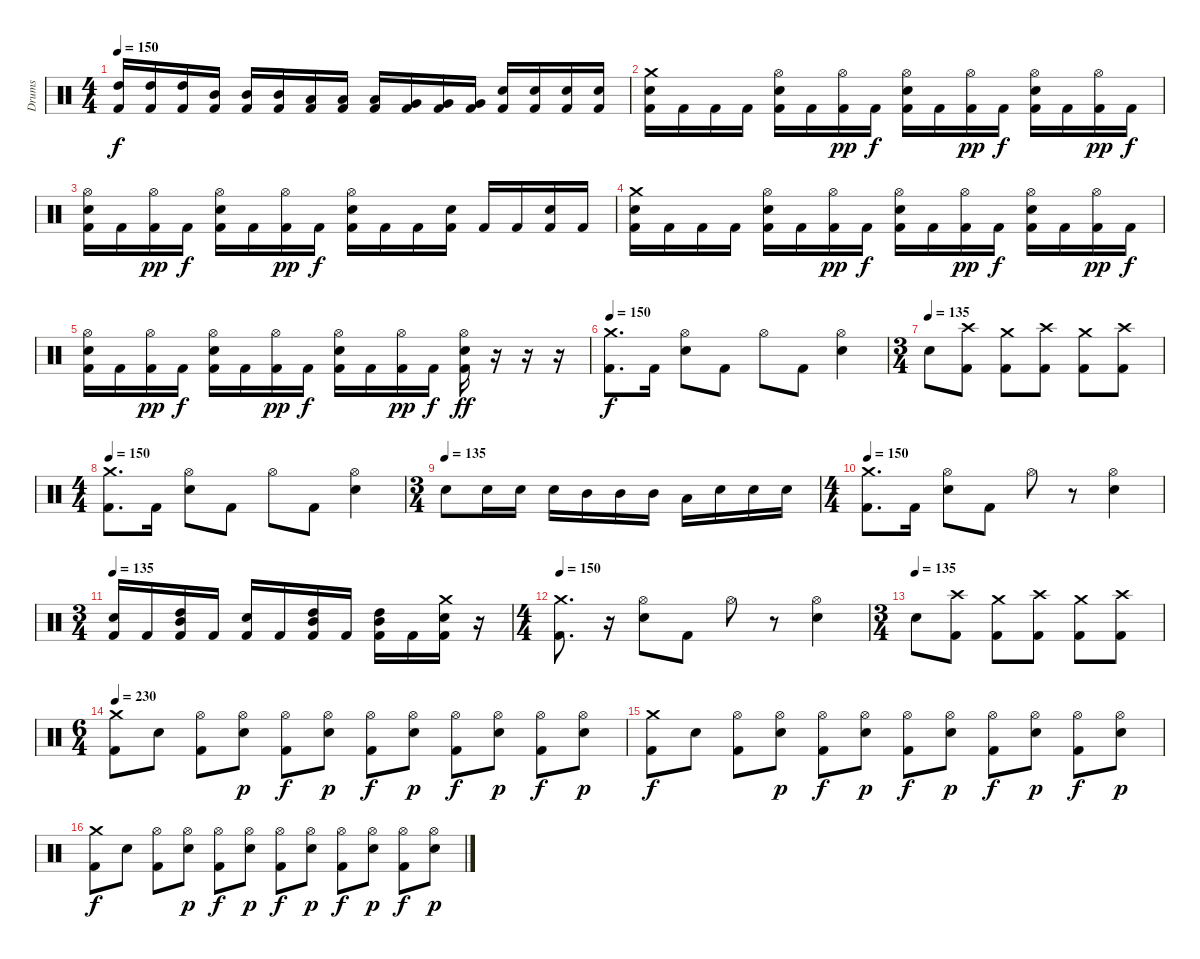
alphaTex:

\track ("Drums" "Drums") {instrument percussion}
\staff {score}
\articulation defaults
\ts (4 4)
\tempo 150
\clef neutral
\ks c
("High Tom (hit)" "Kick (hit) 2").16{dy f} ("High Tom (hit)" "Kick (hit) 2").16 ("High Tom (hit)" "Kick (hit) 2").16 ("Mid Tom (hit)" "Kick (hit) 2").16 ("Mid Tom (hit)" "Kick (hit) 2").16 ("Mid Tom (hit)" "Kick (hit) 2").16 ("Low Tom (hit)" "Kick (hit) 2").16 ("Low Tom (hit)" "Kick (hit) 2").16 ("Low Tom (hit)" "Kick (hit) 2").16 ("Very Low Tom (hit)" "Kick (hit) 2").16 ("Very Low Tom (hit)" "Kick (hit) 2").16 ("Very Low Tom (hit)" "Kick (hit) 2").16 ("Snare (hit) 2" "Kick (hit) 2").16 ("Snare (hit) 2" "Kick (hit) 2").16 ("Snare (hit) 2" "Kick (hit) 2").16 ("Snare (hit) 2" "Kick (hit) 2").16 |
("Crash medium (hit)" "Snare (hit) 2" "Kick (hit) 2").16 "Kick (hit) 2".16 "Kick (hit) 2".16 "Kick (hit) 2".16 ("Hi-Hat (open)" "Snare (hit) 2" "Kick (hit) 2").16 "Kick (hit) 2".16 ("Hi-Hat (open)" "Kick (hit) 2").16{dy pp} "Kick (hit) 2".16{dy f} ("Hi-Hat (open)" "Snare (hit) 2" "Kick (hit) 2").16 "Kick (hit) 2".16 ("Hi-Hat (open)" "Kick (hit) 2").16{dy pp} "Kick (hit) 2".16{dy f} ("Hi-Hat (open)" "Snare (hit) 2" "Kick (hit) 2").16 "Kick (hit) 2".16 ("Hi-Hat (open)" "Kick (hit) 2").16{dy pp} "Kick (hit) 2".16{dy f} |
("Hi-Hat (open)" "Snare (hit) 2" "Kick (hit) 2").16 "Kick (hit) 2".16 ("Hi-Hat (open)" "Kick (hit) 2").16{dy pp} "Kick (hit) 2".16{dy f} ("Hi-Hat (open)" "Snare (hit) 2" "Kick (hit) 2").16 "Kick (hit) 2".16 ("Hi-Hat (open)" "Kick (hit) 2").16{dy pp} "Kick (hit) 2".16{dy f} ("Hi-Hat (open)" "Snare (hit) 2" "Kick (hit) 2").16 "Kick (hit) 2".16 "Kick (hit) 2".16 ("Snare (hit) 2" "Kick (hit) 2").16 "Kick (hit) 2".16 "Kick (hit) 2".16 ("Snare (hit) 2" "Kick (hit) 2").16 "Kick (hit) 2".16 |
("Crash medium (hit)" "Snare (hit) 2" "Kick (hit) 2").16 "Kick (hit) 2".16 "Kick (hit) 2".16 "Kick (hit) 2".16 ("Hi-Hat (open)" "Snare (hit) 2" "Kick (hit) 2").16 "Kick (hit) 2".16 ("Hi-Hat (open)" "Kick (hit) 2").16{dy pp} "Kick (hit) 2".16{dy f} ("Hi-Hat (open)" "Snare (hit) 2" "Kick (hit) 2").16 "Kick (hit) 2".16 ("Hi-Hat (open)" "Kick (hit) 2").16{dy pp} "Kick (hit) 2".16{dy f} ("Hi-Hat (open)" "Snare (hit) 2" "Kick (hit) 2").16 "Kick (hit) 2".16 ("Hi-Hat (open)" "Kick (hit) 2").16{dy pp} "Kick (hit) 2".16{dy f} |
("Hi-Hat (open)" "Snare (hit) 2" "Kick (hit) 2").16 "Kick (hit) 2".16 ("Hi-Hat (open)" "Kick (hit) 2").16{dy pp} "Kick (hit) 2".16{dy f} ("Hi-Hat (open)" "Snare (hit) 2" "Kick (hit) 2").16 "Kick (hit) 2".16 ("Hi-Hat (open)" "Kick (hit) 2").16{dy pp} "Kick (hit) 2".16{dy f} ("Hi-Hat (open)" "Snare (hit) 2" "Kick (hit) 2").16 "Kick (hit) 2".16 ("Hi-Hat (open)" "Kick (hit) 2").16{dy pp} "Kick (hit) 2".16{dy f} ("Hi-Hat (open)" "Snare (hit) 2" "Kick (hit) 2").16{dy ff} r.16 r.16 r.16 |
\tempo 150
("Crash medium (hit)" "Kick (hit) 2").8{d dy f} "Kick (hit) 2".16 ("Hi-Hat (open)" "Snare (hit) 2").8 "Kick (hit) 2".8 "Hi-Hat (open)".8 "Kick (hit) 2".8 ("Hi-Hat (open)" "Snare (hit) 2").4 |
\ts (3 4)
\tempo (135)
"Snare (hit) 2".8 ("Crash high (hit)" "Kick (hit) 2").8 ("Crash medium (hit)" "Kick (hit) 2").8 ("Crash high (hit)" "Kick (hit) 2").8 ("Crash medium (hit)" "Kick (hit) 2").8 ("Crash high (hit)" "Kick (hit) 2").8 |
\ts (4 4)
\tempo 150
("Crash medium (hit)" "Kick (hit) 2").8{d} "Kick (hit) 2".16 ("Hi-Hat (open)" "Snare (hit) 2").8 "Kick (hit) 2".8 "Hi-Hat (open)".8 "Kick (hit) 2".8 ("Hi-Hat (open)" "Snare (hit) 2").4 |
\ts (3 4)
\tempo (135)
"Snare (hit) 2".8 "Snare (hit) 2".16 "Snare (hit) 2".16 "Snare (hit) 2".16 "Mid Tom (hit)".16 "Mid Tom (hit)".16 "Mid Tom (hit)".16 "Low Tom (hit)".16 "Snare (hit) 2".16 "Snare (hit) 2".16 "Snare (hit) 2".16 |
\ts (4 4)
\tempo 150
("Crash medium (hit)" "Kick (hit) 2").8{d} "Kick (hit) 2".16 ("Hi-Hat (open)" "Snare (hit) 2").8 "Kick (hit) 2".8 "Hi-Hat (open)".8 r.8 ("Hi-Hat (open)" "Snare (hit) 2").4 |
\ts (3 4)
\tempo 135
("Snare (hit) 2" "Kick (hit) 2").16 "Kick (hit) 2".16 ("High Tom (hit)" "Mid Tom (hit)" "Kick (hit) 2").16 "Kick (hit) 2".16 ("Snare (hit) 2" "Kick (hit) 2").16 "Kick (hit) 2".16 ("High Tom (hit)" "Mid Tom (hit)" "Kick (hit) 2").16 "Kick (hit) 2".16 ("Mid Tom (hit)" "High Tom (hit)" "Kick (hit) 2").16 "Kick (hit) 2".16 ("Crash medium (hit)" "Snare (hit) 2" "Kick (hit) 2").16 r.16 |
\ts (4 4)
\tempo 150
("Crash medium (hit)" "Kick (hit) 2").8{d} r.16 ("Hi-Hat (open)" "Snare (hit) 2").8 "Kick (hit) 2".8 "Hi-Hat (open)".8 r.8 ("Hi-Hat (open)" "Snare (hit) 2").4 |
\ts (3 4)
\tempo (135)
"Snare (hit) 2".8 ("Crash high (hit)" "Kick (hit) 2").8 ("Crash medium (hit)" "Kick (hit) 2").8 ("Crash high (hit)" "Kick (hit) 2").8 ("Crash medium (hit)" "Kick (hit) 2").8 ("Crash high (hit)" "Kick (hit) 2").8 |
\ts (6 4)
\tempo 230
("Crash medium (hit)" "Kick (hit) 2").8 "Snare (hit) 2".8 ("Hi-Hat (open)" "Kick (hit) 2").8 ("Hi-Hat (open)" "Snare (hit) 2").8{dy p} ("Hi-Hat (open)" "Kick (hit) 2").8{dy f} ("Hi-Hat (open)" "Snare (hit) 2").8{dy p} ("Hi-Hat (open)" "Kick (hit) 2").8{dy f} ("Hi-Hat (open)" "Snare (hit) 2").8{dy p} ("Hi-Hat (open)" "Kick (hit) 2").8{dy f} ("Hi-Hat (open)" "Snare (hit) 2").8{dy p} ("Hi-Hat (open)" "Kick (hit) 2").8{dy f} ("Hi-Hat (open)" "Snare (hit) 2").8{dy p} |
("Crash medium (hit)" "Kick (hit) 2").8{dy f} "Snare (hit) 2".8 ("Hi-Hat (open)" "Kick (hit) 2").8 ("Hi-Hat (open)" "Snare (hit) 2").8{dy p} ("Hi-Hat (open)" "Kick (hit) 2").8{dy f} ("Hi-Hat (open)" "Snare (hit) 2").8{dy p} ("Hi-Hat (open)" "Kick (hit) 2").8{dy f} ("Hi-Hat (open)" "Snare (hit) 2").8{dy p} ("Hi-Hat (open)" "Kick (hit) 2").8{dy f} ("Hi-Hat (open)" "Snare (hit) 2").8{dy p} ("Hi-Hat (open)" "Kick (hit) 2").8{dy f} ("Hi-Hat (open)" "Snare (hit) 2").8{dy p} |
("Crash medium (hit)" "Kick (hit) 2").8{dy f} "Snare (hit) 2".8 ("Hi-Hat (open)" "Kick (hit) 2").8 ("Hi-Hat (open)" "Snare (hit) 2").8{dy p} ("Hi-Hat (open)" "Kick (hit) 2").8{dy f} ("Hi-Hat (open)" "Snare (hit) 2").8{dy p} ("Hi-Hat (open)" "Kick (hit) 2").8{dy f} ("Hi-Hat (open)" "Snare (hit) 2").8{dy p} ("Hi-Hat (open)" "Kick (hit) 2").8{dy f} ("Hi-Hat (open)" "Snare (hit) 2").8{dy p} ("Hi-Hat (open)" "Kick (hit) 2").8{dy f} ("Hi-Hat (open)" "Snare (hit) 2").8{dy p}
